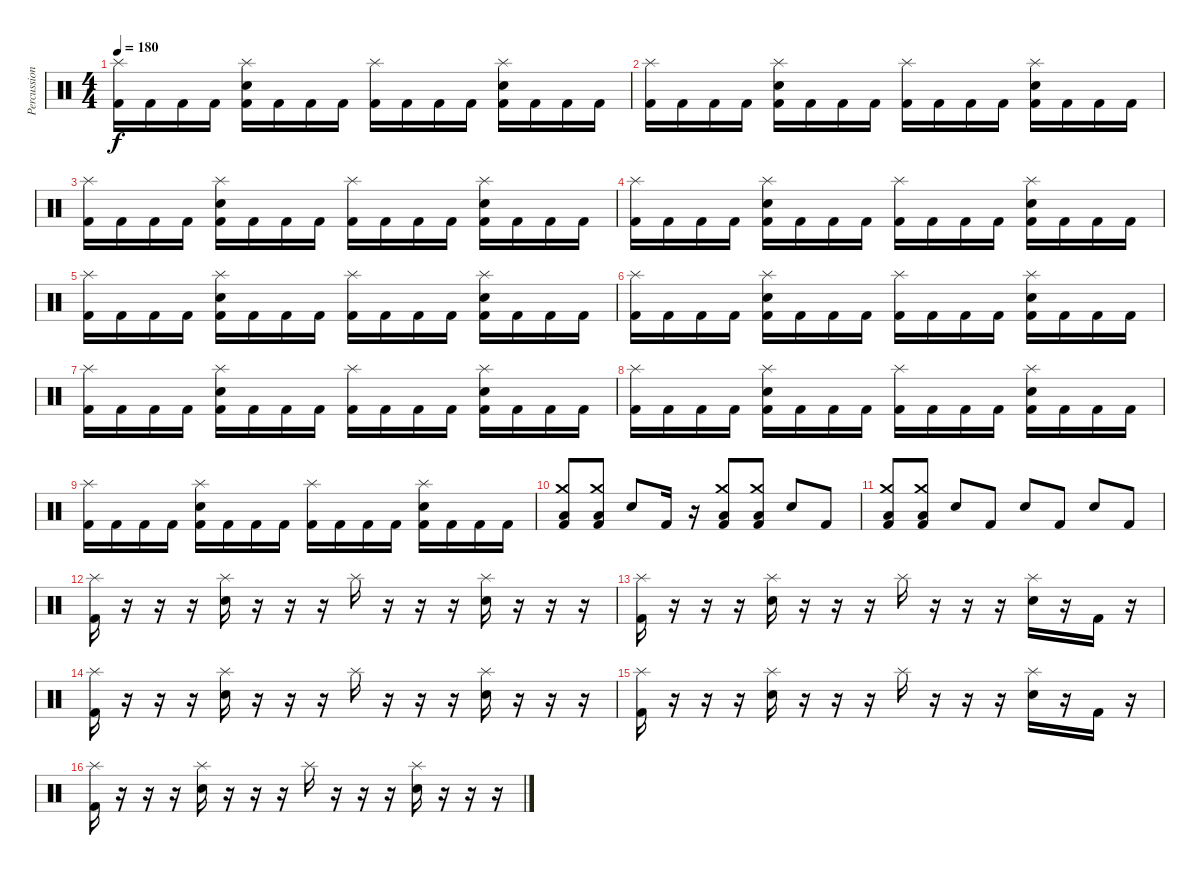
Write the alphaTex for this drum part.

\track ("Percussion" "Percussion") {instrument percussion}
\staff {score}
\articulation defaults
\ts (4 4)
\tempo 180
\clef neutral
\ks c
("Splash (hit)" "Kick (hit) 2").16{dy f} "Kick (hit) 2".16 "Kick (hit) 2".16 "Kick (hit) 2".16 ("Splash (hit)" "Snare (hit) 2" "Kick (hit) 2").16 "Kick (hit) 2".16 "Kick (hit) 2".16 "Kick (hit) 2".16 ("Splash (hit)" "Kick (hit) 2").16 "Kick (hit) 2".16 "Kick (hit) 2".16 "Kick (hit) 2".16 ("Splash (hit)" "Snare (hit) 2" "Kick (hit) 2").16 "Kick (hit) 2".16 "Kick (hit) 2".16 "Kick (hit) 2".16 |
("Splash (hit)" "Kick (hit) 2").16 "Kick (hit) 2".16 "Kick (hit) 2".16 "Kick (hit) 2".16 ("Splash (hit)" "Snare (hit) 2" "Kick (hit) 2").16 "Kick (hit) 2".16 "Kick (hit) 2".16 "Kick (hit) 2".16 ("Splash (hit)" "Kick (hit) 2").16 "Kick (hit) 2".16 "Kick (hit) 2".16 "Kick (hit) 2".16 ("Splash (hit)" "Snare (hit) 2" "Kick (hit) 2").16 "Kick (hit) 2".16 "Kick (hit) 2".16 "Kick (hit) 2".16 |
("Splash (hit)" "Kick (hit) 2").16 "Kick (hit) 2".16 "Kick (hit) 2".16 "Kick (hit) 2".16 ("Splash (hit)" "Snare (hit) 2" "Kick (hit) 2").16 "Kick (hit) 2".16 "Kick (hit) 2".16 "Kick (hit) 2".16 ("Splash (hit)" "Kick (hit) 2").16 "Kick (hit) 2".16 "Kick (hit) 2".16 "Kick (hit) 2".16 ("Splash (hit)" "Snare (hit) 2" "Kick (hit) 2").16 "Kick (hit) 2".16 "Kick (hit) 2".16 "Kick (hit) 2".16 |
("Splash (hit)" "Kick (hit) 2").16 "Kick (hit) 2".16 "Kick (hit) 2".16 "Kick (hit) 2".16 ("Splash (hit)" "Snare (hit) 2" "Kick (hit) 2").16 "Kick (hit) 2".16 "Kick (hit) 2".16 "Kick (hit) 2".16 ("Splash (hit)" "Kick (hit) 2").16 "Kick (hit) 2".16 "Kick (hit) 2".16 "Kick (hit) 2".16 ("Splash (hit)" "Snare (hit) 2" "Kick (hit) 2").16 "Kick (hit) 2".16 "Kick (hit) 2".16 "Kick (hit) 2".16 |
("Splash (hit)" "Kick (hit) 2").16 "Kick (hit) 2".16 "Kick (hit) 2".16 "Kick (hit) 2".16 ("Splash (hit)" "Snare (hit) 2" "Kick (hit) 2").16 "Kick (hit) 2".16 "Kick (hit) 2".16 "Kick (hit) 2".16 ("Splash (hit)" "Kick (hit) 2").16 "Kick (hit) 2".16 "Kick (hit) 2".16 "Kick (hit) 2".16 ("Splash (hit)" "Snare (hit) 2" "Kick (hit) 2").16 "Kick (hit) 2".16 "Kick (hit) 2".16 "Kick (hit) 2".16 |
("Splash (hit)" "Kick (hit) 2").16 "Kick (hit) 2".16 "Kick (hit) 2".16 "Kick (hit) 2".16 ("Splash (hit)" "Snare (hit) 2" "Kick (hit) 2").16 "Kick (hit) 2".16 "Kick (hit) 2".16 "Kick (hit) 2".16 ("Splash (hit)" "Kick (hit) 2").16 "Kick (hit) 2".16 "Kick (hit) 2".16 "Kick (hit) 2".16 ("Splash (hit)" "Snare (hit) 2" "Kick (hit) 2").16 "Kick (hit) 2".16 "Kick (hit) 2".16 "Kick (hit) 2".16 |
("Splash (hit)" "Kick (hit) 2").16 "Kick (hit) 2".16 "Kick (hit) 2".16 "Kick (hit) 2".16 ("Splash (hit)" "Snare (hit) 2" "Kick (hit) 2").16 "Kick (hit) 2".16 "Kick (hit) 2".16 "Kick (hit) 2".16 ("Splash (hit)" "Kick (hit) 2").16 "Kick (hit) 2".16 "Kick (hit) 2".16 "Kick (hit) 2".16 ("Splash (hit)" "Snare (hit) 2" "Kick (hit) 2").16 "Kick (hit) 2".16 "Kick (hit) 2".16 "Kick (hit) 2".16 |
("Splash (hit)" "Kick (hit) 2").16 "Kick (hit) 2".16 "Kick (hit) 2".16 "Kick (hit) 2".16 ("Splash (hit)" "Snare (hit) 2" "Kick (hit) 2").16 "Kick (hit) 2".16 "Kick (hit) 2".16 "Kick (hit) 2".16 ("Splash (hit)" "Kick (hit) 2").16 "Kick (hit) 2".16 "Kick (hit) 2".16 "Kick (hit) 2".16 ("Splash (hit)" "Snare (hit) 2" "Kick (hit) 2").16 "Kick (hit) 2".16 "Kick (hit) 2".16 "Kick (hit) 2".16 |
("Splash (hit)" "Kick (hit) 2").16 "Kick (hit) 2".16 "Kick (hit) 2".16 "Kick (hit) 2".16 ("Splash (hit)" "Snare (hit) 2" "Kick (hit) 2").16 "Kick (hit) 2".16 "Kick (hit) 2".16 "Kick (hit) 2".16 ("Splash (hit)" "Kick (hit) 2").16 "Kick (hit) 2".16 "Kick (hit) 2".16 "Kick (hit) 2".16 ("Splash (hit)" "Snare (hit) 2" "Kick (hit) 2").16 "Kick (hit) 2".16 "Kick (hit) 2".16 "Kick (hit) 2".16 |
("Crash medium (hit)" "Low Floor Tom (hit)" "Kick (hit) 2").8 ("Crash medium (hit)" "Low Floor Tom (hit)" "Kick (hit) 2").8 "Snare (hit) 2".8 "Kick (hit) 2".16 r.16 ("Crash medium (hit)" "Low Floor Tom (hit)" "Kick (hit) 2").8 ("Crash medium (hit)" "Low Floor Tom (hit)" "Kick (hit) 2").8 "Snare (hit) 2".8 "Kick (hit) 2".8 |
("Crash medium (hit)" "Low Floor Tom (hit)" "Kick (hit) 2").8 ("Crash medium (hit)" "Low Floor Tom (hit)" "Kick (hit) 2").8 "Snare (hit) 2".8 "Kick (hit) 2".8 "Snare (hit) 2".8 "Kick (hit) 2".8 "Snare (hit) 2".8 "Kick (hit) 2".8 |
("Splash (hit)" "Kick (hit) 2").16 r.16 r.16 r.16 ("Splash (hit)" "Snare (hit) 2").16 r.16 r.16 r.16 "Splash (hit)".16 r.16 r.16 r.16 ("Splash (hit)" "Snare (hit) 2").16 r.16 r.16 r.16 |
("Splash (hit)" "Kick (hit) 2").16 r.16 r.16 r.16 ("Splash (hit)" "Snare (hit) 2").16 r.16 r.16 r.16 "Splash (hit)".16 r.16 r.16 r.16 ("Splash (hit)" "Snare (hit) 2").16 r.16 "Kick (hit) 2".16 r.16 |
("Splash (hit)" "Kick (hit) 2").16 r.16 r.16 r.16 ("Splash (hit)" "Snare (hit) 2").16 r.16 r.16 r.16 "Splash (hit)".16 r.16 r.16 r.16 ("Splash (hit)" "Snare (hit) 2").16 r.16 r.16 r.16 |
("Splash (hit)" "Kick (hit) 2").16 r.16 r.16 r.16 ("Splash (hit)" "Snare (hit) 2").16 r.16 r.16 r.16 "Splash (hit)".16 r.16 r.16 r.16 ("Splash (hit)" "Snare (hit) 2").16 r.16 "Kick (hit) 2".16 r.16 |
("Splash (hit)" "Kick (hit) 2").16 r.16 r.16 r.16 ("Splash (hit)" "Snare (hit) 2").16 r.16 r.16 r.16 "Splash (hit)".16 r.16 r.16 r.16 ("Splash (hit)" "Snare (hit) 2").16 r.16 r.16 r.16
